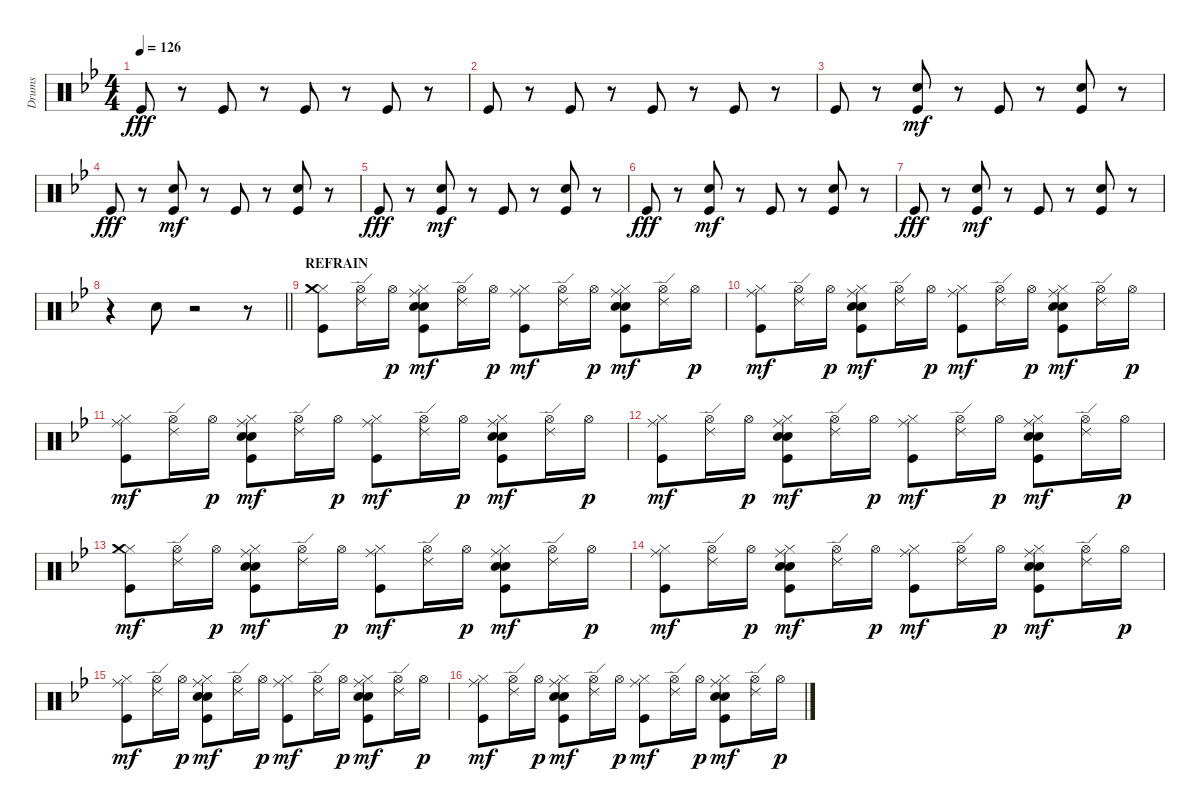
\track ("Drums" "Drums") {instrument percussion}
\staff {score}
\articulation defaults
\ts (4 4)
\tempo 126
\clef neutral
\ks bb "Kick (hit)".8{dy fff}
r.8 "Kick (hit)".8 r.8 "Kick (hit)".8 r.8 "Kick (hit)".8 r.8 |
"Kick (hit)".8 r.8 "Kick (hit)".8 r.8 "Kick (hit)".8 r.8 "Kick (hit)".8 r.8 |
"Kick (hit)".8 r.8 ("Kick (hit)" "Hand Clap (hit)").8{dy mf} r.8 "Kick (hit)".8 r.8 ("Kick (hit)" "Hand Clap (hit)").8 r.8 |
"Kick (hit)".8{dy fff} r.8 ("Kick (hit)" "Hand Clap (hit)").8{dy mf} r.8 "Kick (hit)".8 r.8 ("Kick (hit)" "Hand Clap (hit)").8 r.8 |
"Kick (hit)".8{dy fff} r.8 ("Kick (hit)" "Hand Clap (hit)").8{dy mf} r.8 "Kick (hit)".8 r.8 ("Kick (hit)" "Hand Clap (hit)").8 r.8 |
"Kick (hit)".8{dy fff} r.8 ("Kick (hit)" "Hand Clap (hit)").8{dy mf} r.8 "Kick (hit)".8 r.8 ("Kick (hit)" "Hand Clap (hit)").8 r.8 |
"Kick (hit)".8{dy fff} r.8 ("Kick (hit)" "Hand Clap (hit)").8{dy mf} r.8 "Kick (hit)".8 r.8 ("Kick (hit)" "Hand Clap (hit)").8 r.8 |
\barLineRight lightlight
r.4 "Hand Clap (hit)".8 r.2 r.8 |
\section ("" "REFRAIN")
("Kick (hit)" "Hi-Hat (closed)" "Crash medium (hit)").8 ("Hi-Hat (open)" "Ride (edge) 2").16 "Hi-Hat (open)".16{dy p} ("Hi-Hat (closed)" "Kick (hit)" "Hand Clap (hit)" "Electric Snare (hit)" "Ride (middle)").8{dy mf} ("Hi-Hat (open)" "Ride (edge) 2").16 "Hi-Hat (open)".16{dy p} ("Hi-Hat (closed)" "Kick (hit)" "Ride (middle)").8{dy mf} ("Hi-Hat (open)" "Ride (edge) 2").16 "Hi-Hat (open)".16{dy p} ("Hi-Hat (closed)" "Kick (hit)" "Hand Clap (hit)" "Electric Snare (hit)" "Ride (middle)").8{dy mf} ("Hi-Hat (open)" "Ride (edge) 2").16 "Hi-Hat (open)".16{dy p} |
("Hi-Hat (closed)" "Kick (hit)" "Ride (middle)").8{dy mf} ("Hi-Hat (open)" "Ride (edge) 2").16 "Hi-Hat (open)".16{dy p} ("Hi-Hat (closed)" "Kick (hit)" "Hand Clap (hit)" "Electric Snare (hit)" "Ride (middle)").8{dy mf} ("Hi-Hat (open)" "Ride (edge) 2").16 "Hi-Hat (open)".16{dy p} ("Hi-Hat (closed)" "Kick (hit)" "Ride (middle)").8{dy mf} ("Hi-Hat (open)" "Ride (edge) 2").16 "Hi-Hat (open)".16{dy p} ("Hi-Hat (closed)" "Kick (hit)" "Hand Clap (hit)" "Electric Snare (hit)" "Ride (middle)").8{dy mf} ("Hi-Hat (open)" "Ride (edge) 2").16 "Hi-Hat (open)".16{dy p} |
("Hi-Hat (closed)" "Kick (hit)" "Ride (middle)").8{dy mf} ("Hi-Hat (open)" "Ride (edge) 2").16 "Hi-Hat (open)".16{dy p} ("Hi-Hat (closed)" "Kick (hit)" "Hand Clap (hit)" "Electric Snare (hit)" "Ride (middle)").8{dy mf} ("Hi-Hat (open)" "Ride (edge) 2").16 "Hi-Hat (open)".16{dy p} ("Hi-Hat (closed)" "Kick (hit)" "Ride (middle)").8{dy mf} ("Hi-Hat (open)" "Ride (edge) 2").16 "Hi-Hat (open)".16{dy p} ("Hi-Hat (closed)" "Kick (hit)" "Hand Clap (hit)" "Electric Snare (hit)" "Ride (middle)").8{dy mf} ("Hi-Hat (open)" "Ride (edge) 2").16 "Hi-Hat (open)".16{dy p} |
("Hi-Hat (closed)" "Kick (hit)" "Ride (middle)").8{dy mf} ("Hi-Hat (open)" "Ride (edge) 2").16 "Hi-Hat (open)".16{dy p} ("Hi-Hat (closed)" "Kick (hit)" "Hand Clap (hit)" "Electric Snare (hit)" "Ride (middle)").8{dy mf} ("Hi-Hat (open)" "Ride (edge) 2").16 "Hi-Hat (open)".16{dy p} ("Hi-Hat (closed)" "Kick (hit)" "Ride (middle)").8{dy mf} ("Hi-Hat (open)" "Ride (edge) 2").16 "Hi-Hat (open)".16{dy p} ("Hi-Hat (closed)" "Kick (hit)" "Hand Clap (hit)" "Electric Snare (hit)" "Ride (middle)").8{dy mf} ("Hi-Hat (open)" "Ride (edge) 2").16 "Hi-Hat (open)".16{dy p} |
("Hi-Hat (closed)" "Kick (hit)" "Crash medium (hit)").8{dy mf} ("Hi-Hat (open)" "Ride (edge) 2").16 "Hi-Hat (open)".16{dy p} ("Hi-Hat (closed)" "Kick (hit)" "Hand Clap (hit)" "Electric Snare (hit)" "Ride (middle)").8{dy mf} ("Hi-Hat (open)" "Ride (edge) 2").16 "Hi-Hat (open)".16{dy p} ("Hi-Hat (closed)" "Kick (hit)" "Ride (middle)").8{dy mf} ("Hi-Hat (open)" "Ride (edge) 2").16 "Hi-Hat (open)".16{dy p} ("Hi-Hat (closed)" "Kick (hit)" "Hand Clap (hit)" "Electric Snare (hit)" "Ride (middle)").8{dy mf} ("Hi-Hat (open)" "Ride (edge) 2").16 "Hi-Hat (open)".16{dy p} |
("Hi-Hat (closed)" "Kick (hit)" "Ride (middle)").8{dy mf} ("Hi-Hat (open)" "Ride (edge) 2").16 "Hi-Hat (open)".16{dy p} ("Hi-Hat (closed)" "Kick (hit)" "Hand Clap (hit)" "Electric Snare (hit)" "Ride (middle)").8{dy mf} ("Hi-Hat (open)" "Ride (edge) 2").16 "Hi-Hat (open)".16{dy p} ("Hi-Hat (closed)" "Kick (hit)" "Ride (middle)").8{dy mf} ("Hi-Hat (open)" "Ride (edge) 2").16 "Hi-Hat (open)".16{dy p} ("Hi-Hat (closed)" "Kick (hit)" "Hand Clap (hit)" "Electric Snare (hit)" "Ride (middle)").8{dy mf} ("Hi-Hat (open)" "Ride (edge) 2").16 "Hi-Hat (open)".16{dy p} |
("Hi-Hat (closed)" "Kick (hit)" "Ride (middle)").8{dy mf} ("Hi-Hat (open)" "Ride (edge) 2").16 "Hi-Hat (open)".16{dy p} ("Hi-Hat (closed)" "Kick (hit)" "Hand Clap (hit)" "Electric Snare (hit)" "Ride (middle)").8{dy mf} ("Hi-Hat (open)" "Ride (edge) 2").16 "Hi-Hat (open)".16{dy p} ("Hi-Hat (closed)" "Kick (hit)" "Ride (middle)").8{dy mf} ("Hi-Hat (open)" "Ride (edge) 2").16 "Hi-Hat (open)".16{dy p} ("Hi-Hat (closed)" "Kick (hit)" "Hand Clap (hit)" "Electric Snare (hit)" "Ride (middle)").8{dy mf} ("Hi-Hat (open)" "Ride (edge) 2").16 "Hi-Hat (open)".16{dy p} |
("Hi-Hat (closed)" "Kick (hit)" "Ride (middle)").8{dy mf} ("Hi-Hat (open)" "Ride (edge) 2").16 "Hi-Hat (open)".16{dy p} ("Hi-Hat (closed)" "Kick (hit)" "Hand Clap (hit)" "Electric Snare (hit)" "Ride (middle)").8{dy mf} ("Hi-Hat (open)" "Ride (edge) 2").16 "Hi-Hat (open)".16{dy p} ("Hi-Hat (closed)" "Kick (hit)" "Ride (middle)").8{dy mf} ("Hi-Hat (open)" "Ride (edge) 2").16 "Hi-Hat (open)".16{dy p} ("Hi-Hat (closed)" "Kick (hit)" "Hand Clap (hit)" "Electric Snare (hit)" "Ride (middle)").8{dy mf} ("Hi-Hat (open)" "Ride (edge) 2").16 "Hi-Hat (open)".16{dy p}
